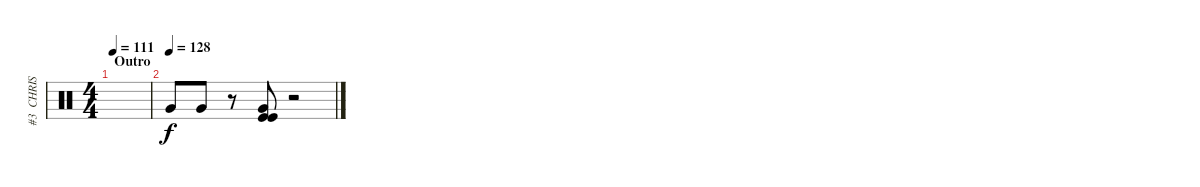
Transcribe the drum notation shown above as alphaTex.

\track ("#3  CHRIS FEHN" "#3  CHRIS ") {instrument percussion}
\staff {score}
\articulation defaults
\ts (4 4)
\section ("" "Outro")
\tempo 111
\clef neutral
\ks c
|
\tempo (128)
"Very Low Tom (hit)".8 "Very Low Tom (hit)".8 r.8 ("Kick (hit)" "Kick (hit)" "Very Low Tom (hit)").8 r.2
